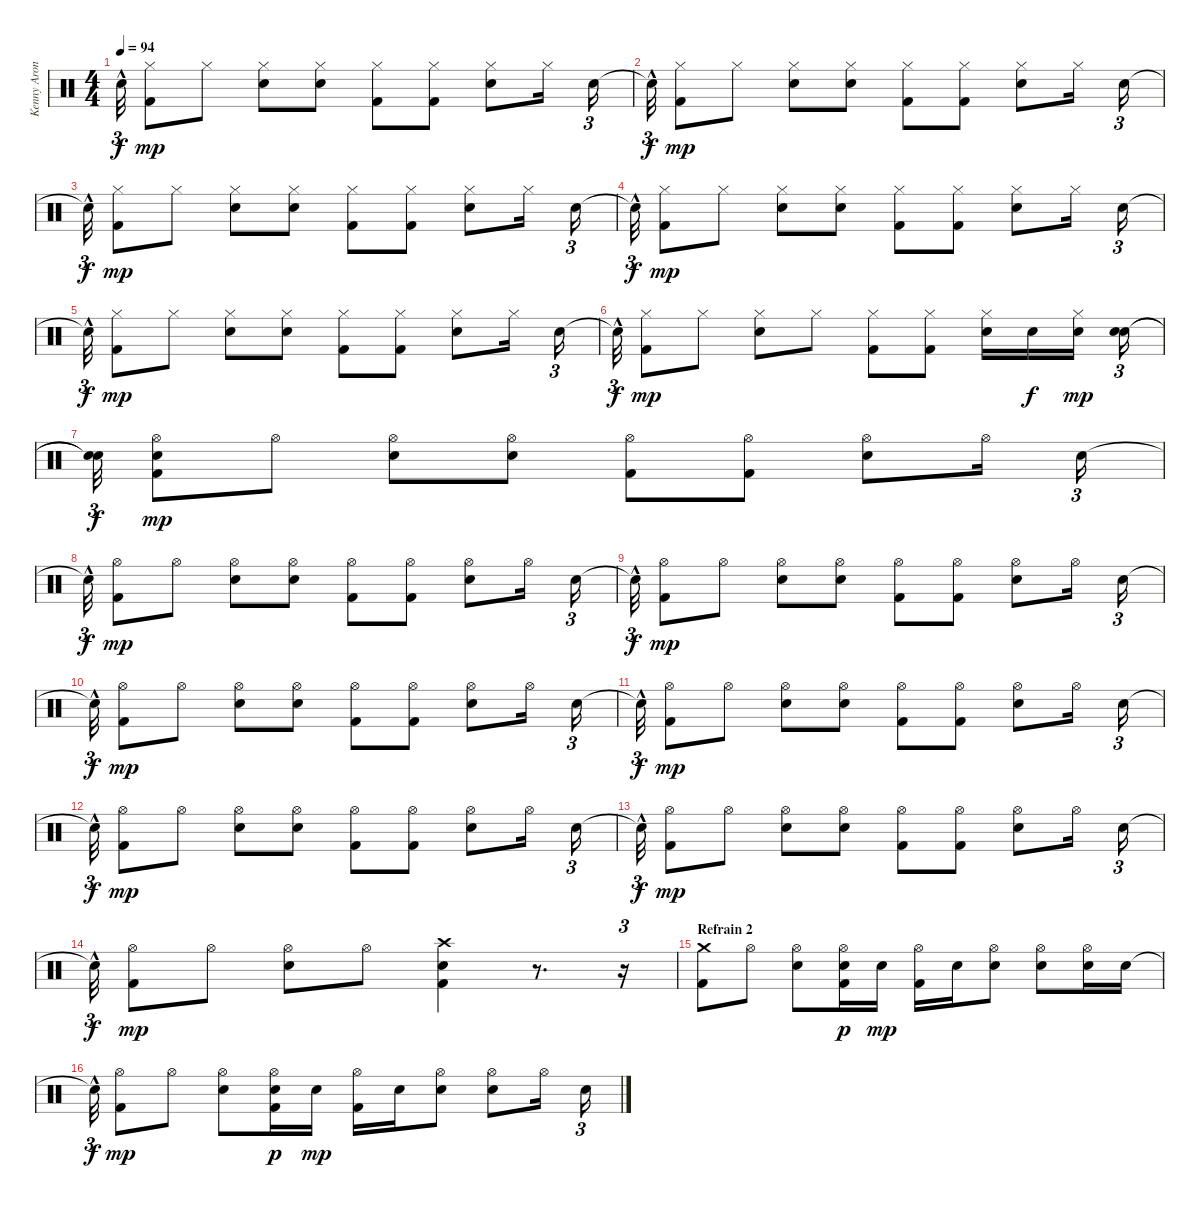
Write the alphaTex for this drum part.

\track ("Kenny Aronoff - Batterie" "Kenny Aron") {instrument percussion}
\staff {score}
\articulation defaults
\ts (4 4)
\tempo 94
\clef neutral
\ks c "Snare (hit)"{hac t}.32{tu (3 2) dy f}
("Kick (hit) 2" "Hi-Hat (closed)").8{dy mp} "Hi-Hat (closed)".8 ("Electric Snare (hit)" "Hi-Hat (closed)").8 ("Hi-Hat (closed)" "Electric Snare (hit)").8 ("Kick (hit) 2" "Hi-Hat (closed)").8 ("Hi-Hat (closed)" "Kick (hit) 2").8 ("Electric Snare (hit)" "Hi-Hat (closed)").8 "Hi-Hat (closed)".16 "Electric Snare (hit)".16{tu (3 2)} |
"Snare (hit)"{hac t}.32{tu (3 2) dy f} ("Kick (hit) 2" "Hi-Hat (closed)").8{dy mp} "Hi-Hat (closed)".8 ("Electric Snare (hit)" "Hi-Hat (closed)").8 ("Hi-Hat (closed)" "Electric Snare (hit)").8 ("Kick (hit) 2" "Hi-Hat (closed)").8 ("Hi-Hat (closed)" "Kick (hit) 2").8 ("Electric Snare (hit)" "Hi-Hat (closed)").8 "Hi-Hat (closed)".16 "Electric Snare (hit)".16{tu (3 2)} |
"Snare (hit)"{hac t}.32{tu (3 2) dy f} ("Kick (hit) 2" "Hi-Hat (closed)").8{dy mp} "Hi-Hat (closed)".8 ("Electric Snare (hit)" "Hi-Hat (closed)").8 ("Hi-Hat (closed)" "Electric Snare (hit)").8 ("Kick (hit) 2" "Hi-Hat (closed)").8 ("Hi-Hat (closed)" "Kick (hit) 2").8 ("Electric Snare (hit)" "Hi-Hat (closed)").8 "Hi-Hat (closed)".16 "Electric Snare (hit)".16{tu (3 2)} |
"Snare (hit)"{hac t}.32{tu (3 2) dy f} ("Kick (hit) 2" "Hi-Hat (closed)").8{dy mp} "Hi-Hat (closed)".8 ("Electric Snare (hit)" "Hi-Hat (closed)").8 ("Hi-Hat (closed)" "Electric Snare (hit)").8 ("Kick (hit) 2" "Hi-Hat (closed)").8 ("Hi-Hat (closed)" "Kick (hit) 2").8 ("Electric Snare (hit)" "Hi-Hat (closed)").8 "Hi-Hat (closed)".16 "Electric Snare (hit)".16{tu (3 2)} |
"Snare (hit)"{hac t}.32{tu (3 2) dy f} ("Kick (hit) 2" "Hi-Hat (closed)").8{dy mp} "Hi-Hat (closed)".8 ("Electric Snare (hit)" "Hi-Hat (closed)").8 ("Hi-Hat (closed)" "Electric Snare (hit)").8 ("Kick (hit) 2" "Hi-Hat (closed)").8 ("Hi-Hat (closed)" "Kick (hit) 2").8 ("Electric Snare (hit)" "Hi-Hat (closed)").8 "Hi-Hat (closed)".16 "Electric Snare (hit)".16{tu (3 2)} |
"Snare (hit)"{hac t}.32{tu (3 2) dy f} ("Kick (hit) 2" "Hi-Hat (closed)").8{dy mp} "Hi-Hat (closed)".8 ("Hi-Hat (closed)" "Electric Snare (hit)").8 "Hi-Hat (closed)".8 ("Kick (hit) 2" "Hi-Hat (closed)").8 ("Kick (hit) 2" "Hi-Hat (closed)").8 ("Hi-Hat (closed)" "Electric Snare (hit)").16 "Electric Snare (hit)".16{dy f} ("Hi-Hat (closed)" "Electric Snare (hit)").16{dy mp} ("Electric Snare (hit)" "Electric Snare (hit)").16{tu (3 2)} |
("Snare (hit)"{t} "Snare (hit)"{t}).32{tu (3 2) dy f} ("Kick (hit) 2" "Hi-Hat (open)" "Electric Snare (hit)").8{dy mp} "Hi-Hat (open)".8 ("Hi-Hat (open)" "Electric Snare (hit)").8 ("Hi-Hat (open)" "Electric Snare (hit)").8 ("Kick (hit) 2" "Hi-Hat (open)").8 ("Hi-Hat (open)" "Kick (hit) 2").8 ("Hi-Hat (open)" "Electric Snare (hit)").8 "Hi-Hat (open)".16 "Electric Snare (hit)".16{tu (3 2)} |
"Snare (hit)"{hac t}.32{tu (3 2) dy f} ("Kick (hit) 2" "Hi-Hat (open)").8{dy mp} "Hi-Hat (open)".8 ("Electric Snare (hit)" "Hi-Hat (open)").8 ("Hi-Hat (open)" "Electric Snare (hit)").8 ("Kick (hit) 2" "Hi-Hat (open)").8 ("Hi-Hat (open)" "Kick (hit) 2").8 ("Electric Snare (hit)" "Hi-Hat (open)").8 "Hi-Hat (open)".16 "Electric Snare (hit)".16{tu (3 2)} |
"Snare (hit)"{hac t}.32{tu (3 2) dy f} ("Kick (hit) 2" "Hi-Hat (open)").8{dy mp} "Hi-Hat (open)".8 ("Electric Snare (hit)" "Hi-Hat (open)").8 ("Hi-Hat (open)" "Electric Snare (hit)").8 ("Kick (hit) 2" "Hi-Hat (open)").8 ("Hi-Hat (open)" "Kick (hit) 2").8 ("Electric Snare (hit)" "Hi-Hat (open)").8 "Hi-Hat (open)".16 "Electric Snare (hit)".16{tu (3 2)} |
"Snare (hit)"{hac t}.32{tu (3 2) dy f} ("Kick (hit) 2" "Hi-Hat (open)").8{dy mp} "Hi-Hat (open)".8 ("Electric Snare (hit)" "Hi-Hat (open)").8 ("Hi-Hat (open)" "Electric Snare (hit)").8 ("Kick (hit) 2" "Hi-Hat (open)").8 ("Hi-Hat (open)" "Kick (hit) 2").8 ("Electric Snare (hit)" "Hi-Hat (open)").8 "Hi-Hat (open)".16 "Electric Snare (hit)".16{tu (3 2)} |
"Snare (hit)"{hac t}.32{tu (3 2) dy f} ("Kick (hit) 2" "Hi-Hat (open)").8{dy mp} "Hi-Hat (open)".8 ("Electric Snare (hit)" "Hi-Hat (open)").8 ("Hi-Hat (open)" "Electric Snare (hit)").8 ("Kick (hit) 2" "Hi-Hat (open)").8 ("Hi-Hat (open)" "Kick (hit) 2").8 ("Electric Snare (hit)" "Hi-Hat (open)").8 "Hi-Hat (open)".16 "Electric Snare (hit)".16{tu (3 2)} |
"Snare (hit)"{hac t}.32{tu (3 2) dy f} ("Kick (hit) 2" "Hi-Hat (open)").8{dy mp} "Hi-Hat (open)".8 ("Electric Snare (hit)" "Hi-Hat (open)").8 ("Hi-Hat (open)" "Electric Snare (hit)").8 ("Kick (hit) 2" "Hi-Hat (open)").8 ("Hi-Hat (open)" "Kick (hit) 2").8 ("Electric Snare (hit)" "Hi-Hat (open)").8 "Hi-Hat (open)".16 "Electric Snare (hit)".16{tu (3 2)} |
"Snare (hit)"{hac t}.32{tu (3 2) dy f} ("Kick (hit) 2" "Hi-Hat (open)").8{dy mp} "Hi-Hat (open)".8 ("Electric Snare (hit)" "Hi-Hat (open)").8 ("Hi-Hat (open)" "Electric Snare (hit)").8 ("Kick (hit) 2" "Hi-Hat (open)").8 ("Hi-Hat (open)" "Kick (hit) 2").8 ("Electric Snare (hit)" "Hi-Hat (open)").8 "Hi-Hat (open)".16 "Electric Snare (hit)".16{tu (3 2)} |
"Snare (hit)"{hac t}.32{tu (3 2) dy f} ("Kick (hit) 2" "Hi-Hat (open)").8{dy mp} "Hi-Hat (open)".8 ("Hi-Hat (open)" "Electric Snare (hit)").8 "Hi-Hat (open)".8 ("Electric Snare (hit)" "Kick (hit) 2" "Crash high (hit)").4 r.8{d} r.16{tu (3 2)} |
\section ("" "Refrain 2")
("Kick (hit) 2" "Crash medium (hit)").8 "Hi-Hat (open)".8 ("Hi-Hat (open)" "Electric Snare (hit)").8 ("Kick (hit) 2" "Hi-Hat (open)" "Electric Snare (hit)").16{dy p} "Electric Snare (hit)".16{dy mp} ("Kick (hit) 2" "Hi-Hat (open)").16 "Electric Snare (hit)".16 ("Hi-Hat (open)" "Electric Snare (hit)").8 ("Electric Snare (hit)" "Hi-Hat (open)").8 ("Hi-Hat (open)" "Electric Snare (hit)").16 "Electric Snare (hit)".16 |
"Snare (hit)"{hac t}.32{tu (3 2) dy f} ("Kick (hit) 2" "Hi-Hat (open)").8{dy mp} "Hi-Hat (open)".8 ("Hi-Hat (open)" "Electric Snare (hit)").8 ("Kick (hit) 2" "Hi-Hat (open)" "Electric Snare (hit)").16{dy p} "Electric Snare (hit)".16{dy mp} ("Kick (hit) 2" "Hi-Hat (open)").16 "Electric Snare (hit)".16 ("Hi-Hat (open)" "Electric Snare (hit)").8 ("Electric Snare (hit)" "Hi-Hat (open)").8 "Hi-Hat (open)".16 "Electric Snare (hit)".16{tu (3 2)}
